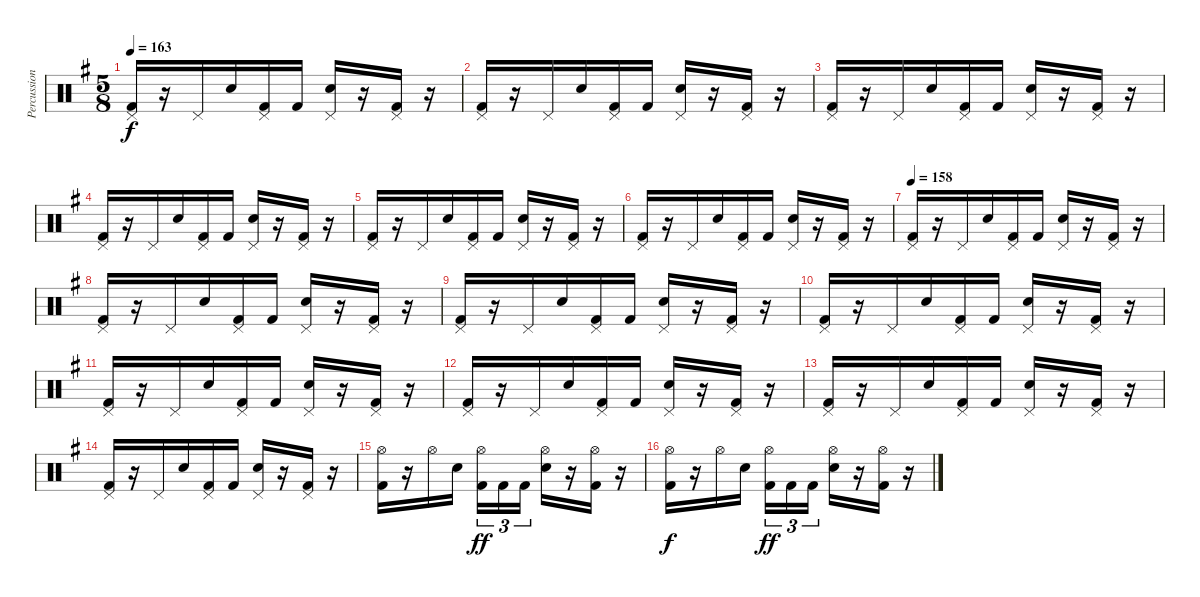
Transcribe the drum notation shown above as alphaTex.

\track ("Percussion" "Percussion") {instrument percussion}
\staff {score}
\articulation defaults
\ts (5 8)
\tempo 163
\clef neutral
\ks g
("Pedal Hi-Hat (hit)" "Kick (hit) 2").16{dy f} r.16 "Pedal Hi-Hat (hit)".16 "Electric Snare (hit)".16 ("Pedal Hi-Hat (hit)" "Kick (hit) 2").16 "Kick (hit) 2".16 ("Pedal Hi-Hat (hit)" "Electric Snare (hit)").16 r.16 ("Pedal Hi-Hat (hit)" "Kick (hit) 2").16 r.16 |
("Pedal Hi-Hat (hit)" "Kick (hit) 2").16 r.16 "Pedal Hi-Hat (hit)".16 "Electric Snare (hit)".16 ("Pedal Hi-Hat (hit)" "Kick (hit) 2").16 "Kick (hit) 2".16 ("Pedal Hi-Hat (hit)" "Electric Snare (hit)").16 r.16 ("Pedal Hi-Hat (hit)" "Kick (hit) 2").16 r.16 |
("Pedal Hi-Hat (hit)" "Kick (hit) 2").16 r.16 "Pedal Hi-Hat (hit)".16 "Electric Snare (hit)".16 ("Pedal Hi-Hat (hit)" "Kick (hit) 2").16 "Kick (hit) 2".16 ("Pedal Hi-Hat (hit)" "Electric Snare (hit)").16 r.16 ("Pedal Hi-Hat (hit)" "Kick (hit) 2").16 r.16 |
("Pedal Hi-Hat (hit)" "Kick (hit) 2").16 r.16 "Pedal Hi-Hat (hit)".16 "Electric Snare (hit)".16 ("Pedal Hi-Hat (hit)" "Kick (hit) 2").16 "Kick (hit) 2".16 ("Pedal Hi-Hat (hit)" "Electric Snare (hit)").16 r.16 ("Pedal Hi-Hat (hit)" "Kick (hit) 2").16 r.16 |
("Pedal Hi-Hat (hit)" "Kick (hit) 2").16 r.16 "Pedal Hi-Hat (hit)".16 "Electric Snare (hit)".16 ("Pedal Hi-Hat (hit)" "Kick (hit) 2").16 "Kick (hit) 2".16 ("Pedal Hi-Hat (hit)" "Electric Snare (hit)").16 r.16 ("Pedal Hi-Hat (hit)" "Kick (hit) 2").16 r.16 |
("Pedal Hi-Hat (hit)" "Kick (hit) 2").16 r.16 "Pedal Hi-Hat (hit)".16 "Electric Snare (hit)".16 ("Pedal Hi-Hat (hit)" "Kick (hit) 2").16 "Kick (hit) 2".16 ("Pedal Hi-Hat (hit)" "Electric Snare (hit)").16 r.16 ("Pedal Hi-Hat (hit)" "Kick (hit) 2").16 r.16 |
\tempo 158
("Pedal Hi-Hat (hit)" "Kick (hit) 2").16 r.16 "Pedal Hi-Hat (hit)".16 "Electric Snare (hit)".16 ("Pedal Hi-Hat (hit)" "Kick (hit) 2").16 "Kick (hit) 2".16 ("Pedal Hi-Hat (hit)" "Electric Snare (hit)").16 r.16 ("Pedal Hi-Hat (hit)" "Kick (hit) 2").16 r.16 |
("Pedal Hi-Hat (hit)" "Kick (hit) 2").16 r.16 "Pedal Hi-Hat (hit)".16 "Electric Snare (hit)".16 ("Pedal Hi-Hat (hit)" "Kick (hit) 2").16 "Kick (hit) 2".16 ("Pedal Hi-Hat (hit)" "Electric Snare (hit)").16 r.16 ("Pedal Hi-Hat (hit)" "Kick (hit) 2").16 r.16 |
("Pedal Hi-Hat (hit)" "Kick (hit) 2").16 r.16 "Pedal Hi-Hat (hit)".16 "Electric Snare (hit)".16 ("Pedal Hi-Hat (hit)" "Kick (hit) 2").16 "Kick (hit) 2".16 ("Pedal Hi-Hat (hit)" "Electric Snare (hit)").16 r.16 ("Pedal Hi-Hat (hit)" "Kick (hit) 2").16 r.16 |
("Pedal Hi-Hat (hit)" "Kick (hit) 2").16 r.16 "Pedal Hi-Hat (hit)".16 "Electric Snare (hit)".16 ("Pedal Hi-Hat (hit)" "Kick (hit) 2").16 "Kick (hit) 2".16 ("Pedal Hi-Hat (hit)" "Electric Snare (hit)").16 r.16 ("Pedal Hi-Hat (hit)" "Kick (hit) 2").16 r.16 |
("Pedal Hi-Hat (hit)" "Kick (hit) 2").16 r.16 "Pedal Hi-Hat (hit)".16 "Electric Snare (hit)".16 ("Pedal Hi-Hat (hit)" "Kick (hit) 2").16 "Kick (hit) 2".16 ("Pedal Hi-Hat (hit)" "Electric Snare (hit)").16 r.16 ("Pedal Hi-Hat (hit)" "Kick (hit) 2").16 r.16 |
("Pedal Hi-Hat (hit)" "Kick (hit) 2").16 r.16 "Pedal Hi-Hat (hit)".16 "Electric Snare (hit)".16 ("Pedal Hi-Hat (hit)" "Kick (hit) 2").16 "Kick (hit) 2".16 ("Pedal Hi-Hat (hit)" "Electric Snare (hit)").16 r.16 ("Pedal Hi-Hat (hit)" "Kick (hit) 2").16 r.16 |
("Pedal Hi-Hat (hit)" "Kick (hit) 2").16 r.16 "Pedal Hi-Hat (hit)".16 "Electric Snare (hit)".16 ("Pedal Hi-Hat (hit)" "Kick (hit) 2").16 "Kick (hit) 2".16 ("Pedal Hi-Hat (hit)" "Electric Snare (hit)").16 r.16 ("Pedal Hi-Hat (hit)" "Kick (hit) 2").16 r.16 |
("Pedal Hi-Hat (hit)" "Kick (hit) 2").16 r.16 "Pedal Hi-Hat (hit)".16 "Electric Snare (hit)".16 ("Pedal Hi-Hat (hit)" "Kick (hit) 2").16 "Kick (hit) 2".16 ("Pedal Hi-Hat (hit)" "Electric Snare (hit)").16 r.16 ("Pedal Hi-Hat (hit)" "Kick (hit) 2").16 r.16 |
("Hi-Hat (open)" "Kick (hit) 2").16 r.16 "Hi-Hat (open)".16 "Electric Snare (hit)".16 ("Hi-Hat (open)" "Kick (hit) 2").16{tu (3 2) dy ff} "Kick (hit) 2".16{tu (3 2)} "Kick (hit) 2".16{tu (3 2)} ("Hi-Hat (open)" "Electric Snare (hit)").16 r.16 ("Hi-Hat (open)" "Kick (hit) 2").16 r.16 |
("Hi-Hat (open)" "Kick (hit) 2").16{dy f} r.16 "Hi-Hat (open)".16 "Electric Snare (hit)".16 ("Hi-Hat (open)" "Kick (hit) 2").16{tu (3 2) dy ff} "Kick (hit) 2".16{tu (3 2)} "Kick (hit) 2".16{tu (3 2)} ("Hi-Hat (open)" "Electric Snare (hit)").16 r.16 ("Hi-Hat (open)" "Kick (hit) 2").16 r.16
